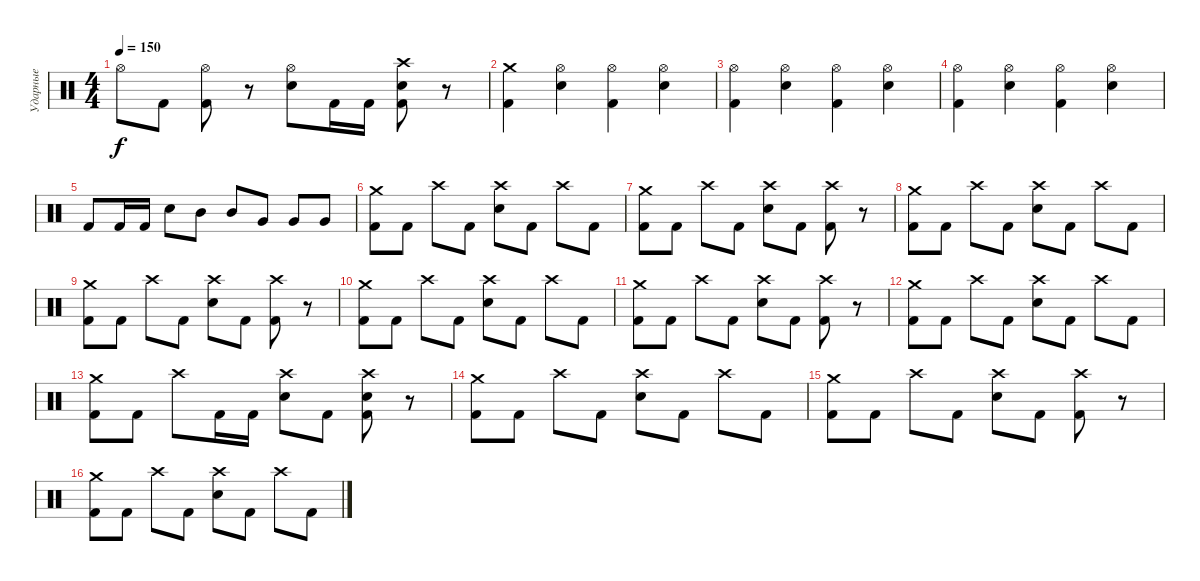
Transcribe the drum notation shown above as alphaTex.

\track ("Ударные" "Ударные") {instrument percussion}
\staff {score}
\articulation defaults
\ts (4 4)
\tempo 150
\clef neutral
\ks c "Hi-Hat (open)".8{dy f} "Kick (hit) 2".8
("Kick (hit) 2" "Hi-Hat (open)").8 r.8 ("Electric Snare (hit)" "Hi-Hat (open)").8 "Kick (hit) 2".16 "Kick (hit) 2".16 ("Kick (hit) 2" "Electric Snare (hit)" "Crash high (hit)").8 r.8 |
("Crash medium (hit)" "Kick (hit) 2").4 ("Hi-Hat (open)" "Electric Snare (hit)").4 ("Hi-Hat (open)" "Kick (hit) 2").4 ("Hi-Hat (open)" "Electric Snare (hit)").4 |
("Hi-Hat (open)" "Kick (hit) 2").4 ("Hi-Hat (open)" "Electric Snare (hit)").4 ("Hi-Hat (open)" "Kick (hit) 2").4 ("Hi-Hat (open)" "Electric Snare (hit)").4 |
("Hi-Hat (open)" "Kick (hit) 2").4 ("Hi-Hat (open)" "Electric Snare (hit)").4 ("Hi-Hat (open)" "Kick (hit) 2").4 ("Hi-Hat (open)" "Electric Snare (hit)").4 |
"Kick (hit) 2".8 "Kick (hit) 2".16 "Kick (hit) 2".16 "Electric Snare (hit)".8 "Mid Tom (hit)".8 "Mid Tom (hit)".8 "Very Low Tom (hit)".8 "Very Low Tom (hit)".8 "Very Low Tom (hit)".8 |
("Kick (hit) 2" "Crash medium (hit)").8 "Kick (hit) 2".8 "Crash high (hit)".8 "Kick (hit) 2".8 ("Electric Snare (hit)" "Crash high (hit)").8 "Kick (hit) 2".8 "Crash high (hit)".8 "Kick (hit) 2".8 |
("Kick (hit) 2" "Crash medium (hit)").8 "Kick (hit) 2".8 "Crash high (hit)".8 "Kick (hit) 2".8 ("Electric Snare (hit)" "Crash high (hit)").8 "Kick (hit) 2".8 ("Kick (hit) 2" "Crash high (hit)").8 r.8 |
("Kick (hit) 2" "Crash medium (hit)").8 "Kick (hit) 2".8 "Crash high (hit)".8 "Kick (hit) 2".8 ("Electric Snare (hit)" "Crash high (hit)").8 "Kick (hit) 2".8 "Crash high (hit)".8 "Kick (hit) 2".8 |
("Kick (hit) 2" "Crash medium (hit)").8 "Kick (hit) 2".8 "Crash high (hit)".8 "Kick (hit) 2".8 ("Electric Snare (hit)" "Crash high (hit)").8 "Kick (hit) 2".8 ("Kick (hit) 2" "Crash high (hit)").8 r.8 |
("Kick (hit) 2" "Crash medium (hit)").8 "Kick (hit) 2".8 "Crash high (hit)".8 "Kick (hit) 2".8 ("Electric Snare (hit)" "Crash high (hit)").8 "Kick (hit) 2".8 "Crash high (hit)".8 "Kick (hit) 2".8 |
("Kick (hit) 2" "Crash medium (hit)").8 "Kick (hit) 2".8 "Crash high (hit)".8 "Kick (hit) 2".8 ("Electric Snare (hit)" "Crash high (hit)").8 "Kick (hit) 2".8 ("Kick (hit) 2" "Crash high (hit)").8 r.8 |
("Kick (hit) 2" "Crash medium (hit)").8 "Kick (hit) 2".8 "Crash high (hit)".8 "Kick (hit) 2".8 ("Electric Snare (hit)" "Crash high (hit)").8 "Kick (hit) 2".8 "Crash high (hit)".8 "Kick (hit) 2".8 |
("Kick (hit) 2" "Crash medium (hit)").8 "Kick (hit) 2".8 "Crash high (hit)".8 "Kick (hit) 2".16 "Kick (hit) 2".16 ("Electric Snare (hit)" "Crash high (hit)").8 "Kick (hit) 2".8 ("Kick (hit) 2" "Electric Snare (hit)" "Crash high (hit)").8 r.8 |
("Kick (hit) 2" "Crash medium (hit)").8 "Kick (hit) 2".8 "Crash high (hit)".8 "Kick (hit) 2".8 ("Electric Snare (hit)" "Crash high (hit)").8 "Kick (hit) 2".8 "Crash high (hit)".8 "Kick (hit) 2".8 |
("Kick (hit) 2" "Crash medium (hit)").8 "Kick (hit) 2".8 "Crash high (hit)".8 "Kick (hit) 2".8 ("Electric Snare (hit)" "Crash high (hit)").8 "Kick (hit) 2".8 ("Kick (hit) 2" "Crash high (hit)").8 r.8 |
("Kick (hit) 2" "Crash medium (hit)").8 "Kick (hit) 2".8 "Crash high (hit)".8 "Kick (hit) 2".8 ("Electric Snare (hit)" "Crash high (hit)").8 "Kick (hit) 2".8 "Crash high (hit)".8 "Kick (hit) 2".8
